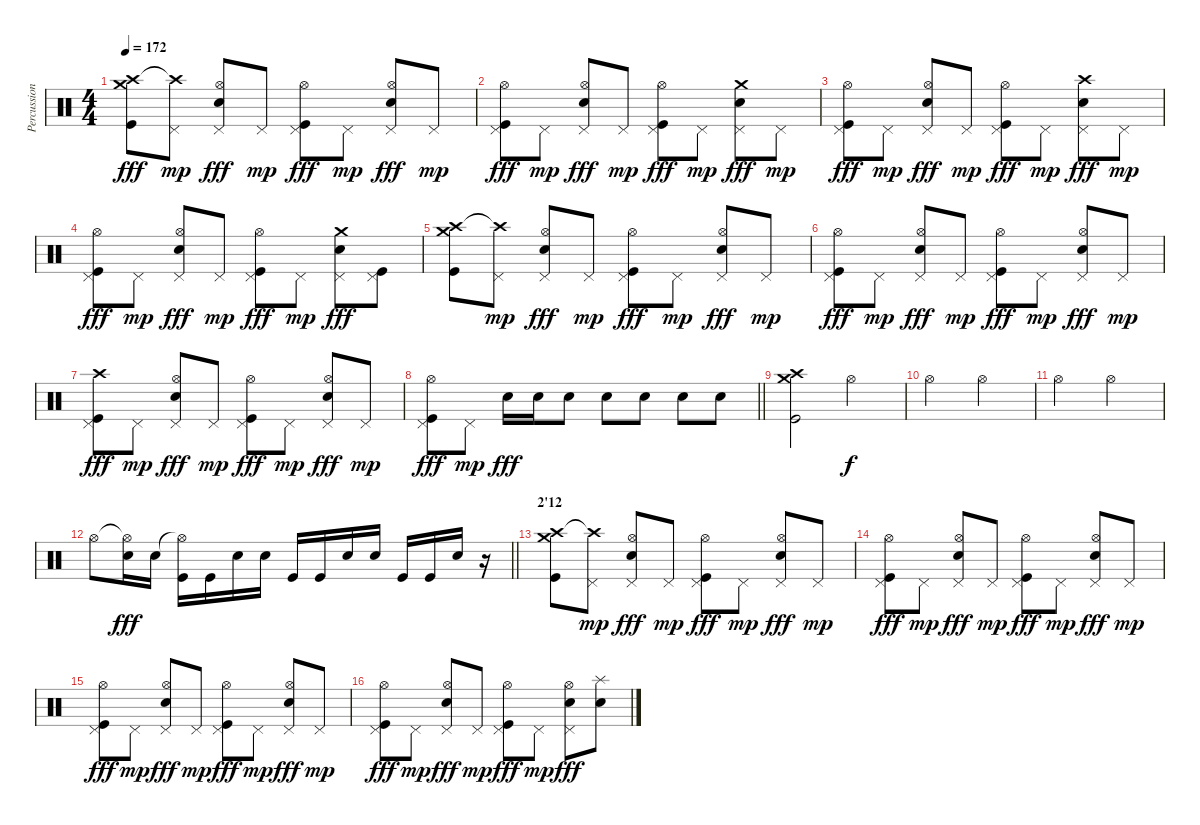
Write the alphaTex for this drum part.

\track ("Percussion" "Percussion") {instrument percussion}
\staff {score}
\articulation defaults
\ts (4 4)
\tempo 172
\clef neutral
\ks c
("Crash medium (hit)" "Crash high (hit)" "Kick (hit)").8{dy fff} ("Pedal Hi-Hat (hit)" "Crash high (hit)"{t}).8{dy mp} ("Pedal Hi-Hat (hit)" "Hi-Hat (open)" "Electric Snare (hit)").8{dy fff} "Pedal Hi-Hat (hit)".8{dy mp} ("Pedal Hi-Hat (hit)" "Hi-Hat (open)" "Kick (hit)").8{dy fff} "Pedal Hi-Hat (hit)".8{dy mp} ("Pedal Hi-Hat (hit)" "Hi-Hat (open)" "Electric Snare (hit)").8{dy fff} "Pedal Hi-Hat (hit)".8{dy mp} |
("Pedal Hi-Hat (hit)" "Hi-Hat (open)" "Kick (hit)").8{dy fff} "Pedal Hi-Hat (hit)".8{dy mp} ("Pedal Hi-Hat (hit)" "Hi-Hat (open)" "Electric Snare (hit)").8{dy fff} "Pedal Hi-Hat (hit)".8{dy mp} ("Pedal Hi-Hat (hit)" "Hi-Hat (open)" "Kick (hit)").8{dy fff} "Pedal Hi-Hat (hit)".8{dy mp} ("Pedal Hi-Hat (hit)" "Crash medium (hit)" "Electric Snare (hit)").8{dy fff} "Pedal Hi-Hat (hit)".8{dy mp} |
("Pedal Hi-Hat (hit)" "Hi-Hat (open)" "Kick (hit)").8{dy fff} "Pedal Hi-Hat (hit)".8{dy mp} ("Pedal Hi-Hat (hit)" "Hi-Hat (open)" "Electric Snare (hit)").8{dy fff} "Pedal Hi-Hat (hit)".8{dy mp} ("Pedal Hi-Hat (hit)" "Hi-Hat (open)" "Kick (hit)").8{dy fff} "Pedal Hi-Hat (hit)".8{dy mp} ("Pedal Hi-Hat (hit)" "Crash high (hit)" "Electric Snare (hit)").8{dy fff} "Pedal Hi-Hat (hit)".8{dy mp} |
("Pedal Hi-Hat (hit)" "Hi-Hat (open)" "Kick (hit)").8{dy fff} "Pedal Hi-Hat (hit)".8{dy mp} ("Pedal Hi-Hat (hit)" "Hi-Hat (open)" "Electric Snare (hit)").8{dy fff} "Pedal Hi-Hat (hit)".8{dy mp} ("Pedal Hi-Hat (hit)" "Hi-Hat (open)" "Kick (hit)").8{dy fff} "Pedal Hi-Hat (hit)".8{dy mp} ("Pedal Hi-Hat (hit)" "Crash medium (hit)" "Electric Snare (hit)").8{dy fff} ("Pedal Hi-Hat (hit)" "Kick (hit)").8 |
("Crash medium (hit)" "Crash high (hit)" "Kick (hit)").8 ("Pedal Hi-Hat (hit)" "Crash high (hit)"{t}).8{dy mp} ("Pedal Hi-Hat (hit)" "Hi-Hat (open)" "Electric Snare (hit)").8{dy fff} "Pedal Hi-Hat (hit)".8{dy mp} ("Pedal Hi-Hat (hit)" "Hi-Hat (open)" "Kick (hit)").8{dy fff} "Pedal Hi-Hat (hit)".8{dy mp} ("Pedal Hi-Hat (hit)" "Hi-Hat (open)" "Electric Snare (hit)").8{dy fff} "Pedal Hi-Hat (hit)".8{dy mp} |
("Pedal Hi-Hat (hit)" "Hi-Hat (open)" "Kick (hit)").8{dy fff} "Pedal Hi-Hat (hit)".8{dy mp} ("Pedal Hi-Hat (hit)" "Hi-Hat (open)" "Electric Snare (hit)").8{dy fff} "Pedal Hi-Hat (hit)".8{dy mp} ("Pedal Hi-Hat (hit)" "Hi-Hat (open)" "Kick (hit)").8{dy fff} "Pedal Hi-Hat (hit)".8{dy mp} ("Pedal Hi-Hat (hit)" "Hi-Hat (open)" "Electric Snare (hit)").8{dy fff} "Pedal Hi-Hat (hit)".8{dy mp} |
("Pedal Hi-Hat (hit)" "Crash high (hit)" "Kick (hit)").8{dy fff} "Pedal Hi-Hat (hit)".8{dy mp} ("Pedal Hi-Hat (hit)" "Hi-Hat (open)" "Electric Snare (hit)").8{dy fff} "Pedal Hi-Hat (hit)".8{dy mp} ("Pedal Hi-Hat (hit)" "Hi-Hat (open)" "Kick (hit)").8{dy fff} "Pedal Hi-Hat (hit)".8{dy mp} ("Pedal Hi-Hat (hit)" "Hi-Hat (open)" "Electric Snare (hit)").8{dy fff} "Pedal Hi-Hat (hit)".8{dy mp} |
\barLineRight lightlight
("Pedal Hi-Hat (hit)" "Hi-Hat (open)" "Kick (hit)").8{dy fff} "Pedal Hi-Hat (hit)".8{dy mp} "Electric Snare (hit)".16{dy fff} "Electric Snare (hit)".16 "Electric Snare (hit)".8 "Electric Snare (hit)".8 "Electric Snare (hit)".8 "Electric Snare (hit)".8 "Electric Snare (hit)".8 |
("Crash medium (hit)" "Crash high (hit)" "Kick (hit)").2 "Hi-Hat (open)".2{dy f} |
"Hi-Hat (open)".2 "Hi-Hat (open)".2 |
"Hi-Hat (open)".2 "Hi-Hat (open)".2 |
\barLineRight lightlight "Hi-Hat (open)".8
("Hi-Hat (open)"{t} "Electric Snare (hit)").16{dy fff} "Electric Snare (hit)".16 ("Hi-Hat (open)"{t} "Kick (hit)").16 "Kick (hit)".16 "Electric Snare (hit)".16 "Electric Snare (hit)".16 "Kick (hit)".16 "Kick (hit)".16 "Electric Snare (hit)".16 "Electric Snare (hit)".16 "Kick (hit)".16 "Kick (hit)".16 "Electric Snare (hit)".16 r.16 |
\section ("" "2'12")
("Crash medium (hit)" "Crash high (hit)" "Kick (hit)").8 ("Pedal Hi-Hat (hit)" "Crash high (hit)"{t}).8{dy mp} ("Pedal Hi-Hat (hit)" "Hi-Hat (open)" "Electric Snare (hit)").8{dy fff} "Pedal Hi-Hat (hit)".8{dy mp} ("Pedal Hi-Hat (hit)" "Hi-Hat (open)" "Kick (hit)").8{dy fff} "Pedal Hi-Hat (hit)".8{dy mp} ("Pedal Hi-Hat (hit)" "Hi-Hat (open)" "Electric Snare (hit)").8{dy fff} "Pedal Hi-Hat (hit)".8{dy mp} |
("Pedal Hi-Hat (hit)" "Hi-Hat (open)" "Kick (hit)").8{dy fff} "Pedal Hi-Hat (hit)".8{dy mp} ("Pedal Hi-Hat (hit)" "Hi-Hat (open)" "Electric Snare (hit)").8{dy fff} "Pedal Hi-Hat (hit)".8{dy mp} ("Pedal Hi-Hat (hit)" "Hi-Hat (open)" "Kick (hit)").8{dy fff} "Pedal Hi-Hat (hit)".8{dy mp} ("Pedal Hi-Hat (hit)" "Hi-Hat (open)" "Electric Snare (hit)").8{dy fff} "Pedal Hi-Hat (hit)".8{dy mp} |
("Pedal Hi-Hat (hit)" "Hi-Hat (open)" "Kick (hit)").8{dy fff} "Pedal Hi-Hat (hit)".8{dy mp} ("Pedal Hi-Hat (hit)" "Hi-Hat (open)" "Electric Snare (hit)").8{dy fff} "Pedal Hi-Hat (hit)".8{dy mp} ("Pedal Hi-Hat (hit)" "Hi-Hat (open)" "Kick (hit)").8{dy fff} "Pedal Hi-Hat (hit)".8{dy mp} ("Pedal Hi-Hat (hit)" "Hi-Hat (open)" "Electric Snare (hit)").8{dy fff} "Pedal Hi-Hat (hit)".8{dy mp} |
("Pedal Hi-Hat (hit)" "Hi-Hat (open)" "Kick (hit)").8{dy fff} "Pedal Hi-Hat (hit)".8{dy mp} ("Pedal Hi-Hat (hit)" "Hi-Hat (open)" "Electric Snare (hit)").8{dy fff} "Pedal Hi-Hat (hit)".8{dy mp} ("Pedal Hi-Hat (hit)" "Hi-Hat (open)" "Kick (hit)").8{dy fff} "Pedal Hi-Hat (hit)".8{dy mp} ("Pedal Hi-Hat (hit)" "Hi-Hat (open)" "Electric Snare (hit)").8{dy fff} ("Splash (hit)" "Electric Snare (hit)").8
